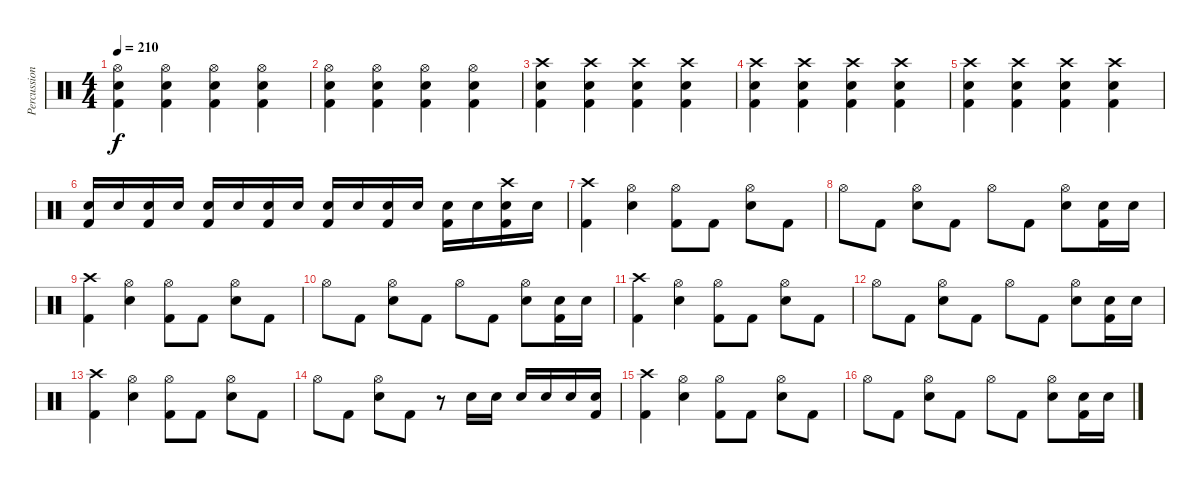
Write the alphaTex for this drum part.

\track ("Percussions" "Percussion") {instrument percussion}
\staff {score}
\articulation defaults
\ts (4 4)
\tempo 210
\clef neutral
\ks c
("Kick (hit) 2" "Snare (hit) 2" "Hi-Hat (open)").4{dy f} ("Kick (hit) 2" "Snare (hit) 2" "Hi-Hat (open)").4 ("Kick (hit) 2" "Snare (hit) 2" "Hi-Hat (open)").4 ("Kick (hit) 2" "Snare (hit) 2" "Hi-Hat (open)").4 |
("Kick (hit) 2" "Snare (hit) 2" "Hi-Hat (open)").4 ("Kick (hit) 2" "Snare (hit) 2" "Hi-Hat (open)").4 ("Kick (hit) 2" "Snare (hit) 2" "Hi-Hat (open)").4 ("Kick (hit) 2" "Snare (hit) 2" "Hi-Hat (open)").4 |
("Kick (hit) 2" "Snare (hit) 2" "Crash high (hit)").4 ("Kick (hit) 2" "Snare (hit) 2" "Crash high (hit)").4 ("Kick (hit) 2" "Snare (hit) 2" "Crash high (hit)").4 ("Kick (hit) 2" "Snare (hit) 2" "Crash high (hit)").4 |
("Kick (hit) 2" "Snare (hit) 2" "Crash high (hit)").4 ("Kick (hit) 2" "Snare (hit) 2" "Crash high (hit)").4 ("Kick (hit) 2" "Snare (hit) 2" "Crash high (hit)").4 ("Kick (hit) 2" "Snare (hit) 2" "Crash high (hit)").4 |
("Kick (hit) 2" "Snare (hit) 2" "Crash high (hit)").4 ("Kick (hit) 2" "Snare (hit) 2" "Crash high (hit)").4 ("Kick (hit) 2" "Snare (hit) 2" "Crash high (hit)").4 ("Kick (hit) 2" "Snare (hit) 2" "Crash high (hit)").4 |
("Kick (hit) 2" "Snare (hit) 2").16 "Snare (hit) 2".16 ("Kick (hit) 2" "Snare (hit) 2").16 "Snare (hit) 2".16 ("Kick (hit) 2" "Snare (hit) 2").16 "Snare (hit) 2".16 ("Kick (hit) 2" "Snare (hit) 2").16 "Snare (hit) 2".16 ("Kick (hit) 2" "Snare (hit) 2").16 "Snare (hit) 2".16 ("Kick (hit) 2" "Snare (hit) 2").16 "Snare (hit) 2".16 ("Kick (hit) 2" "Snare (hit) 2").16 "Snare (hit) 2".16 ("Kick (hit) 2" "Snare (hit) 2" "Crash high (hit)").16 "Snare (hit) 2".16 |
("Kick (hit) 2" "Crash high (hit)").4 ("Snare (hit) 2" "Hi-Hat (open)").4 ("Kick (hit) 2" "Hi-Hat (open)").8 "Kick (hit) 2".8 ("Snare (hit) 2" "Hi-Hat (open)").8 "Kick (hit) 2".8 |
"Hi-Hat (open)".8 "Kick (hit) 2".8 ("Snare (hit) 2" "Hi-Hat (open)").8 "Kick (hit) 2".8 "Hi-Hat (open)".8 "Kick (hit) 2".8 ("Snare (hit) 2" "Hi-Hat (open)").8 ("Kick (hit) 2" "Snare (hit) 2").16 "Snare (hit) 2".16 |
("Kick (hit) 2" "Crash high (hit)").4 ("Snare (hit) 2" "Hi-Hat (open)").4 ("Kick (hit) 2" "Hi-Hat (open)").8 "Kick (hit) 2".8 ("Snare (hit) 2" "Hi-Hat (open)").8 "Kick (hit) 2".8 |
"Hi-Hat (open)".8 "Kick (hit) 2".8 ("Snare (hit) 2" "Hi-Hat (open)").8 "Kick (hit) 2".8 "Hi-Hat (open)".8 "Kick (hit) 2".8 ("Snare (hit) 2" "Hi-Hat (open)").8 ("Kick (hit) 2" "Snare (hit) 2").16 "Snare (hit) 2".16 |
("Kick (hit) 2" "Crash high (hit)").4 ("Snare (hit) 2" "Hi-Hat (open)").4 ("Kick (hit) 2" "Hi-Hat (open)").8 "Kick (hit) 2".8 ("Snare (hit) 2" "Hi-Hat (open)").8 "Kick (hit) 2".8 |
"Hi-Hat (open)".8 "Kick (hit) 2".8 ("Snare (hit) 2" "Hi-Hat (open)").8 "Kick (hit) 2".8 "Hi-Hat (open)".8 "Kick (hit) 2".8 ("Snare (hit) 2" "Hi-Hat (open)").8 ("Kick (hit) 2" "Snare (hit) 2").16 "Snare (hit) 2".16 |
("Kick (hit) 2" "Crash high (hit)").4 ("Snare (hit) 2" "Hi-Hat (open)").4 ("Kick (hit) 2" "Hi-Hat (open)").8 "Kick (hit) 2".8 ("Snare (hit) 2" "Hi-Hat (open)").8 "Kick (hit) 2".8 |
"Hi-Hat (open)".8 "Kick (hit) 2".8 ("Snare (hit) 2" "Hi-Hat (open)").8 "Kick (hit) 2".8 r.8 "Snare (hit) 2".16 "Snare (hit) 2".16 "Snare (hit) 2".16 "Snare (hit) 2".16 "Snare (hit) 2".16 ("Kick (hit) 2" "Snare (hit) 2").16 |
("Kick (hit) 2" "Crash high (hit)").4 ("Snare (hit) 2" "Hi-Hat (open)").4 ("Kick (hit) 2" "Hi-Hat (open)").8 "Kick (hit) 2".8 ("Snare (hit) 2" "Hi-Hat (open)").8 "Kick (hit) 2".8 |
"Hi-Hat (open)".8 "Kick (hit) 2".8 ("Snare (hit) 2" "Hi-Hat (open)").8 "Kick (hit) 2".8 "Hi-Hat (open)".8 "Kick (hit) 2".8 ("Snare (hit) 2" "Hi-Hat (open)").8 ("Kick (hit) 2" "Snare (hit) 2").16 "Snare (hit) 2".16
